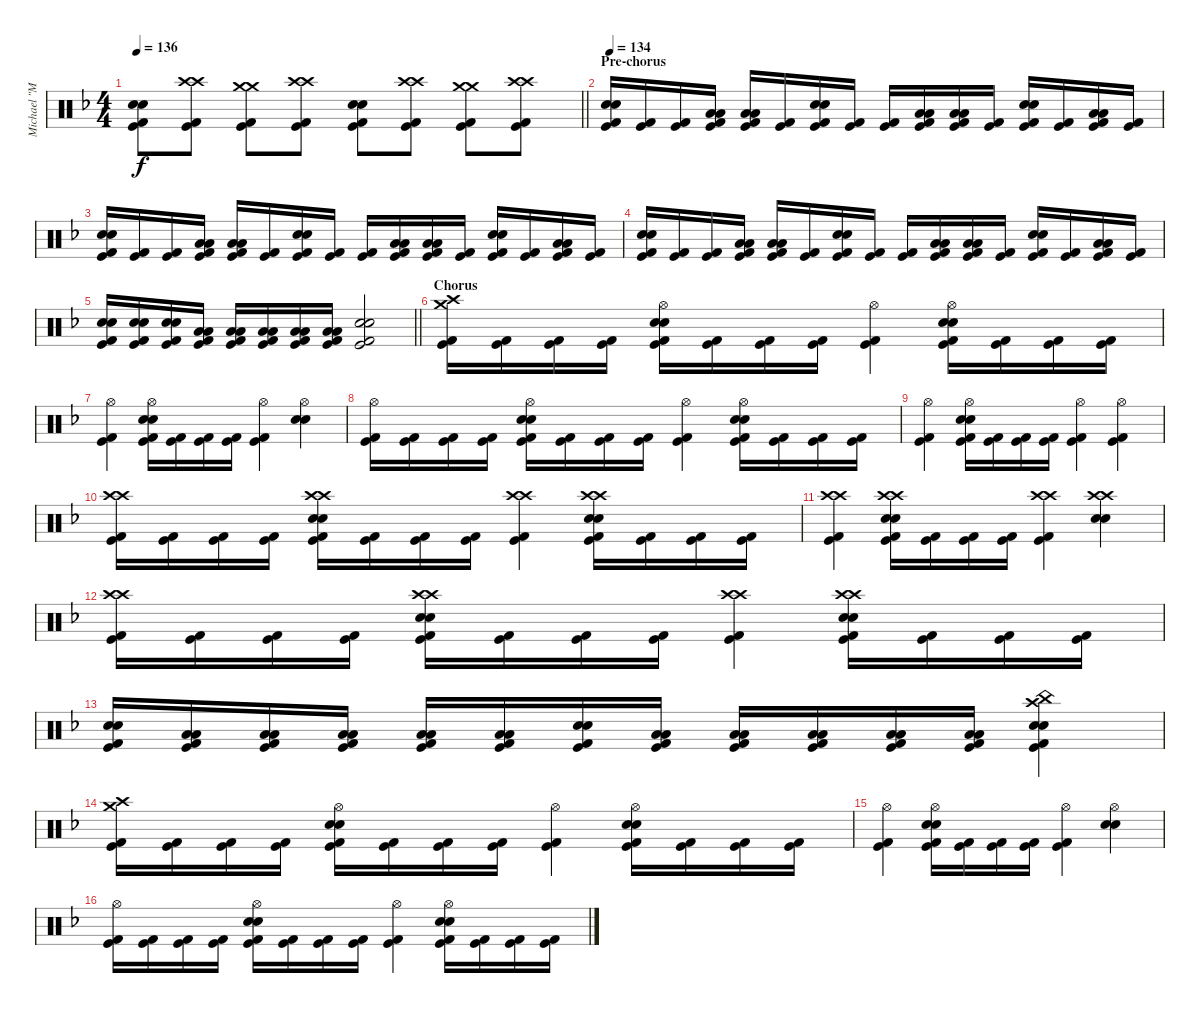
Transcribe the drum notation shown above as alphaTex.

\track ("Michael \"Moose\" Thomas" "Michael \"M") {instrument percussion}
\staff {score}
\articulation defaults
\ts (4 4)
\tempo 136
\clef neutral
\barLineRight lightlight
\ks f
("Electric Snare (hit)" "Electric Snare (hit)" "Kick (hit)" "Kick (hit) 2").8{dy f} ("Crash high (hit)" "Crash high (hit)" "Kick (hit)" "Kick (hit) 2").8 ("Crash medium (hit)" "Crash medium (hit)" "Kick (hit)" "Kick (hit) 2").8 ("Crash high (hit)" "Crash high (hit)" "Kick (hit)" "Kick (hit) 2").8 ("Electric Snare (hit)" "Electric Snare (hit)" "Kick (hit)" "Kick (hit) 2").8 ("Crash high (hit)" "Crash high (hit)" "Kick (hit)" "Kick (hit) 2").8 ("Crash medium (hit)" "Crash medium (hit)" "Kick (hit)" "Kick (hit) 2").8 ("Crash high (hit)" "Crash high (hit)" "Kick (hit)" "Kick (hit) 2").8 |
\section ("" "Pre-chorus")
\tempo 134
("Electric Snare (hit)" "Electric Snare (hit)" "Kick (hit)" "Kick (hit) 2").16 ("Kick (hit)" "Kick (hit) 2").16 ("Kick (hit)" "Kick (hit) 2").16 ("Low Tom (hit)" "Low Tom (hit)" "Kick (hit)" "Kick (hit) 2").16 ("Low Tom (hit)" "Low Floor Tom (hit)" "Kick (hit)" "Kick (hit) 2").16 ("Kick (hit)" "Kick (hit) 2").16 ("Electric Snare (hit)" "Electric Snare (hit)" "Kick (hit)" "Kick (hit) 2").16 ("Kick (hit)" "Kick (hit) 2").16 ("Kick (hit)" "Kick (hit) 2").16 ("Low Tom (hit)" "Low Floor Tom (hit)" "Kick (hit)" "Kick (hit) 2").16 ("Low Floor Tom (hit)" "Low Floor Tom (hit)" "Kick (hit)" "Kick (hit) 2").16 ("Kick (hit)" "Kick (hit) 2").16 ("Electric Snare (hit)" "Electric Snare (hit)" "Kick (hit)" "Kick (hit) 2").16 ("Kick (hit)" "Kick (hit) 2").16 ("Low Floor Tom (hit)" "Low Floor Tom (hit)" "Kick (hit)" "Kick (hit) 2").16 ("Kick (hit)" "Kick (hit) 2").16 |
("Electric Snare (hit)" "Electric Snare (hit)" "Kick (hit)" "Kick (hit) 2").16 ("Kick (hit)" "Kick (hit) 2").16 ("Kick (hit)" "Kick (hit) 2").16 ("Low Tom (hit)" "Low Tom (hit)" "Kick (hit)" "Kick (hit) 2").16 ("Low Tom (hit)" "Low Floor Tom (hit)" "Kick (hit)" "Kick (hit) 2").16 ("Kick (hit)" "Kick (hit) 2").16 ("Electric Snare (hit)" "Electric Snare (hit)" "Kick (hit)" "Kick (hit) 2").16 ("Kick (hit)" "Kick (hit) 2").16 ("Kick (hit)" "Kick (hit) 2").16 ("Low Tom (hit)" "Low Floor Tom (hit)" "Kick (hit)" "Kick (hit) 2").16 ("Low Floor Tom (hit)" "Low Floor Tom (hit)" "Kick (hit)" "Kick (hit) 2").16 ("Kick (hit)" "Kick (hit) 2").16 ("Electric Snare (hit)" "Electric Snare (hit)" "Kick (hit)" "Kick (hit) 2").16 ("Kick (hit)" "Kick (hit) 2").16 ("Low Floor Tom (hit)" "Low Floor Tom (hit)" "Kick (hit)" "Kick (hit) 2").16 ("Kick (hit)" "Kick (hit) 2").16 |
("Electric Snare (hit)" "Electric Snare (hit)" "Kick (hit)" "Kick (hit) 2").16 ("Kick (hit)" "Kick (hit) 2").16 ("Kick (hit)" "Kick (hit) 2").16 ("Low Tom (hit)" "Low Tom (hit)" "Kick (hit)" "Kick (hit) 2").16 ("Low Tom (hit)" "Low Floor Tom (hit)" "Kick (hit)" "Kick (hit) 2").16 ("Kick (hit)" "Kick (hit) 2").16 ("Electric Snare (hit)" "Electric Snare (hit)" "Kick (hit)" "Kick (hit) 2").16 ("Kick (hit)" "Kick (hit) 2").16 ("Kick (hit)" "Kick (hit) 2").16 ("Low Tom (hit)" "Low Floor Tom (hit)" "Kick (hit)" "Kick (hit) 2").16 ("Low Floor Tom (hit)" "Low Floor Tom (hit)" "Kick (hit)" "Kick (hit) 2").16 ("Kick (hit)" "Kick (hit) 2").16 ("Electric Snare (hit)" "Electric Snare (hit)" "Kick (hit)" "Kick (hit) 2").16 ("Kick (hit)" "Kick (hit) 2").16 ("Low Floor Tom (hit)" "Low Floor Tom (hit)" "Kick (hit)" "Kick (hit) 2").16 ("Kick (hit)" "Kick (hit) 2").16 |
\barLineRight lightlight
("Electric Snare (hit)" "Electric Snare (hit)" "Kick (hit)" "Kick (hit) 2").16 ("Electric Snare (hit)" "Electric Snare (hit)" "Kick (hit)" "Kick (hit) 2").16 ("Electric Snare (hit)" "Electric Snare (hit)" "Kick (hit)" "Kick (hit) 2").16 ("Low Tom (hit)" "Low Tom (hit)" "Kick (hit)" "Kick (hit) 2").16 ("Low Tom (hit)" "Low Floor Tom (hit)" "Kick (hit)" "Kick (hit) 2").16 ("Low Floor Tom (hit)" "Low Floor Tom (hit)" "Kick (hit)" "Kick (hit) 2").16 ("Low Tom (hit)" "Low Floor Tom (hit)" "Kick (hit)" "Kick (hit) 2").16 ("Low Floor Tom (hit)" "Low Floor Tom (hit)" "Kick (hit)" "Kick (hit) 2").16 ("Electric Snare (hit)" "Electric Snare (hit)" "Kick (hit)" "Kick (hit) 2").2 |
\section ("" "Chorus")
("Crash high (hit)" "Crash medium (hit)" "Kick (hit)" "Kick (hit) 2").16 ("Kick (hit)" "Kick (hit) 2").16 ("Kick (hit)" "Kick (hit) 2").16 ("Kick (hit)" "Kick (hit) 2").16 ("Hi-Hat (open)" "Electric Snare (hit)" "Electric Snare (hit)" "Kick (hit)" "Kick (hit) 2").16 ("Kick (hit)" "Kick (hit) 2").16 ("Kick (hit)" "Kick (hit) 2").16 ("Kick (hit)" "Kick (hit) 2").16 ("Hi-Hat (open)" "Kick (hit)" "Kick (hit) 2").4 ("Hi-Hat (open)" "Electric Snare (hit)" "Electric Snare (hit)" "Kick (hit)" "Kick (hit) 2").16 ("Kick (hit)" "Kick (hit) 2").16 ("Kick (hit)" "Kick (hit) 2").16 ("Kick (hit)" "Kick (hit) 2").16 |
("Hi-Hat (open)" "Kick (hit)" "Kick (hit) 2").4 ("Hi-Hat (open)" "Electric Snare (hit)" "Electric Snare (hit)" "Kick (hit)" "Kick (hit) 2").16 ("Kick (hit)" "Kick (hit) 2").16 ("Kick (hit)" "Kick (hit) 2").16 ("Kick (hit)" "Kick (hit) 2").16 ("Hi-Hat (open)" "Kick (hit)" "Kick (hit) 2").4 ("Hi-Hat (open)" "Electric Snare (hit)" "Electric Snare (hit)").4 |
("Hi-Hat (open)" "Kick (hit)" "Kick (hit) 2").16 ("Kick (hit)" "Kick (hit) 2").16 ("Kick (hit)" "Kick (hit) 2").16 ("Kick (hit)" "Kick (hit) 2").16 ("Hi-Hat (open)" "Electric Snare (hit)" "Electric Snare (hit)" "Kick (hit)" "Kick (hit) 2").16 ("Kick (hit)" "Kick (hit) 2").16 ("Kick (hit)" "Kick (hit) 2").16 ("Kick (hit)" "Kick (hit) 2").16 ("Hi-Hat (open)" "Kick (hit)" "Kick (hit) 2").4 ("Hi-Hat (open)" "Electric Snare (hit)" "Electric Snare (hit)" "Kick (hit)" "Kick (hit) 2").16 ("Kick (hit)" "Kick (hit) 2").16 ("Kick (hit)" "Kick (hit) 2").16 ("Kick (hit)" "Kick (hit) 2").16 |
("Hi-Hat (open)" "Kick (hit)" "Kick (hit) 2").4 ("Hi-Hat (open)" "Electric Snare (hit)" "Electric Snare (hit)" "Kick (hit)" "Kick (hit) 2").16 ("Kick (hit)" "Kick (hit) 2").16 ("Kick (hit)" "Kick (hit) 2").16 ("Kick (hit)" "Kick (hit) 2").16 ("Hi-Hat (open)" "Kick (hit)" "Kick (hit) 2").4 ("Hi-Hat (open)" "Kick (hit)" "Kick (hit) 2").4 |
("Crash high (hit)" "Crash high (hit)" "Kick (hit)" "Kick (hit) 2").16 ("Kick (hit)" "Kick (hit) 2").16 ("Kick (hit)" "Kick (hit) 2").16 ("Kick (hit)" "Kick (hit) 2").16 ("Crash high (hit)" "Crash high (hit)" "Electric Snare (hit)" "Electric Snare (hit)" "Kick (hit)" "Kick (hit) 2").16 ("Kick (hit)" "Kick (hit) 2").16 ("Kick (hit)" "Kick (hit) 2").16 ("Kick (hit)" "Kick (hit) 2").16 ("Crash high (hit)" "Crash high (hit)" "Kick (hit)" "Kick (hit) 2").4 ("Crash high (hit)" "Crash high (hit)" "Electric Snare (hit)" "Electric Snare (hit)" "Kick (hit)" "Kick (hit) 2").16 ("Kick (hit)" "Kick (hit) 2").16 ("Kick (hit)" "Kick (hit) 2").16 ("Kick (hit)" "Kick (hit) 2").16 |
("Crash high (hit)" "Crash high (hit)" "Kick (hit)" "Kick (hit) 2").4 ("Crash high (hit)" "Crash high (hit)" "Electric Snare (hit)" "Electric Snare (hit)" "Kick (hit)" "Kick (hit) 2").16 ("Kick (hit)" "Kick (hit) 2").16 ("Kick (hit)" "Kick (hit) 2").16 ("Kick (hit)" "Kick (hit) 2").16 ("Crash high (hit)" "Crash high (hit)" "Kick (hit)" "Kick (hit) 2").4 ("Crash high (hit)" "Crash high (hit)" "Electric Snare (hit)" "Electric Snare (hit)").4 |
("Crash high (hit)" "Crash high (hit)" "Kick (hit)" "Kick (hit) 2").16 ("Kick (hit)" "Kick (hit) 2").16 ("Kick (hit)" "Kick (hit) 2").16 ("Kick (hit)" "Kick (hit) 2").16 ("Crash high (hit)" "Crash high (hit)" "Electric Snare (hit)" "Electric Snare (hit)" "Kick (hit)" "Kick (hit) 2").16 ("Kick (hit)" "Kick (hit) 2").16 ("Kick (hit)" "Kick (hit) 2").16 ("Kick (hit)" "Kick (hit) 2").16 ("Crash high (hit)" "Crash high (hit)" "Kick (hit)" "Kick (hit) 2").4 ("Crash high (hit)" "Crash high (hit)" "Electric Snare (hit)" "Electric Snare (hit)" "Kick (hit)" "Kick (hit) 2").16 ("Kick (hit)" "Kick (hit) 2").16 ("Kick (hit)" "Kick (hit) 2").16 ("Kick (hit)" "Kick (hit) 2").16 |
("Electric Snare (hit)" "Electric Snare (hit)" "Kick (hit)" "Kick (hit) 2").16 ("Low Tom (hit)" "Low Tom (hit)" "Kick (hit)" "Kick (hit) 2").16 ("Low Tom (hit)" "Low Floor Tom (hit)" "Kick (hit)" "Kick (hit) 2").16 ("Low Floor Tom (hit)" "Low Floor Tom (hit)" "Kick (hit)" "Kick (hit) 2").16 ("Low Tom (hit)" "Low Floor Tom (hit)" "Kick (hit)" "Kick (hit) 2").16 ("Low Floor Tom (hit)" "Low Floor Tom (hit)" "Kick (hit)" "Kick (hit) 2").16 ("Electric Snare (hit)" "Electric Snare (hit)" "Kick (hit)" "Kick (hit) 2").16 ("Low Tom (hit)" "Low Tom (hit)" "Kick (hit)" "Kick (hit) 2").16 ("Low Tom (hit)" "Low Floor Tom (hit)" "Kick (hit)" "Kick (hit) 2").16 ("Low Floor Tom (hit)" "Low Floor Tom (hit)" "Kick (hit)" "Kick (hit) 2").16 ("Low Tom (hit)" "Low Floor Tom (hit)" "Kick (hit)" "Kick (hit) 2").16 ("Low Floor Tom (hit)" "Low Floor Tom (hit)" "Kick (hit)" "Kick (hit) 2").16 ("Crash high (hit)" "China (hit)" "Electric Snare (hit)" "Electric Snare (hit)" "Kick (hit)" "Kick (hit) 2").4 |
("Crash high (hit)" "Crash medium (hit)" "Kick (hit)" "Kick (hit) 2").16 ("Kick (hit)" "Kick (hit) 2").16 ("Kick (hit)" "Kick (hit) 2").16 ("Kick (hit)" "Kick (hit) 2").16 ("Hi-Hat (open)" "Electric Snare (hit)" "Electric Snare (hit)" "Kick (hit)" "Kick (hit) 2").16 ("Kick (hit)" "Kick (hit) 2").16 ("Kick (hit)" "Kick (hit) 2").16 ("Kick (hit)" "Kick (hit) 2").16 ("Hi-Hat (open)" "Kick (hit)" "Kick (hit) 2").4 ("Hi-Hat (open)" "Electric Snare (hit)" "Electric Snare (hit)" "Kick (hit)" "Kick (hit) 2").16 ("Kick (hit)" "Kick (hit) 2").16 ("Kick (hit)" "Kick (hit) 2").16 ("Kick (hit)" "Kick (hit) 2").16 |
("Hi-Hat (open)" "Kick (hit)" "Kick (hit) 2").4 ("Hi-Hat (open)" "Electric Snare (hit)" "Electric Snare (hit)" "Kick (hit)" "Kick (hit) 2").16 ("Kick (hit)" "Kick (hit) 2").16 ("Kick (hit)" "Kick (hit) 2").16 ("Kick (hit)" "Kick (hit) 2").16 ("Hi-Hat (open)" "Kick (hit)" "Kick (hit) 2").4 ("Hi-Hat (open)" "Electric Snare (hit)" "Electric Snare (hit)").4 |
("Hi-Hat (open)" "Kick (hit)" "Kick (hit) 2").16 ("Kick (hit)" "Kick (hit) 2").16 ("Kick (hit)" "Kick (hit) 2").16 ("Kick (hit)" "Kick (hit) 2").16 ("Hi-Hat (open)" "Electric Snare (hit)" "Electric Snare (hit)" "Kick (hit)" "Kick (hit) 2").16 ("Kick (hit)" "Kick (hit) 2").16 ("Kick (hit)" "Kick (hit) 2").16 ("Kick (hit)" "Kick (hit) 2").16 ("Hi-Hat (open)" "Kick (hit)" "Kick (hit) 2").4 ("Hi-Hat (open)" "Electric Snare (hit)" "Electric Snare (hit)" "Kick (hit)" "Kick (hit) 2").16 ("Kick (hit)" "Kick (hit) 2").16 ("Kick (hit)" "Kick (hit) 2").16 ("Kick (hit)" "Kick (hit) 2").16
